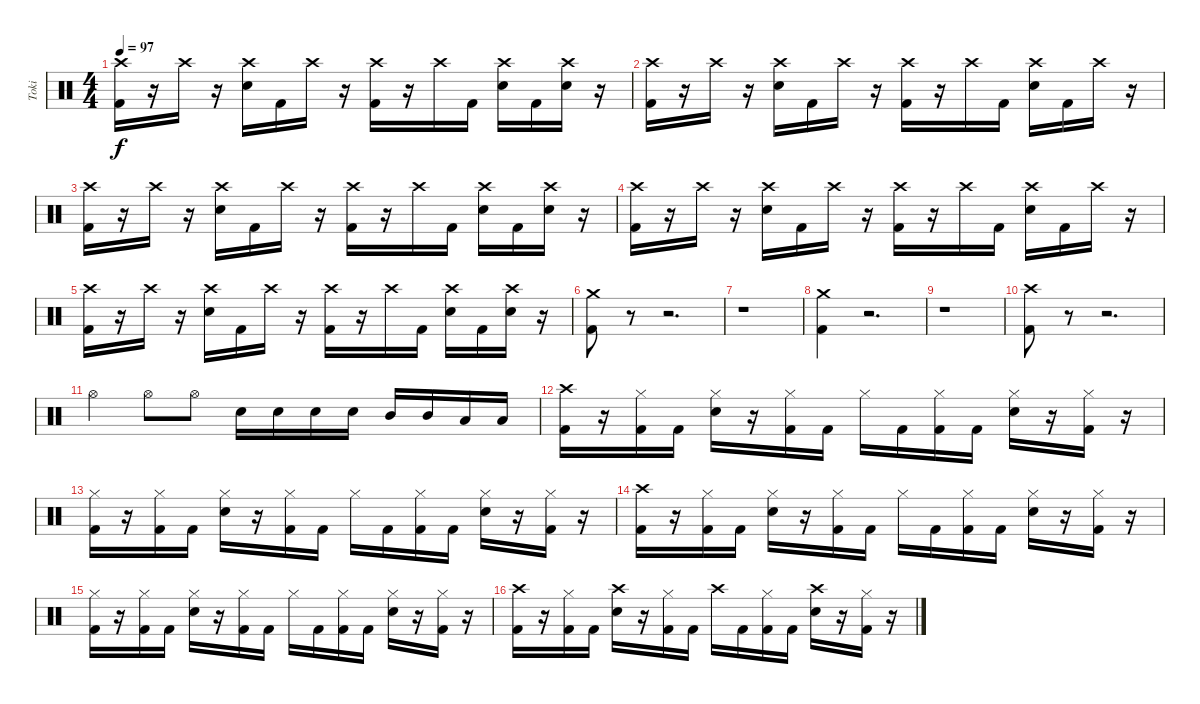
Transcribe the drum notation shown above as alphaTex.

\track ("Toki" "Toki") {instrument percussion}
\staff {score}
\articulation defaults
\ts (4 4)
\tempo 97
\clef neutral
\ks c
("Crash high (hit)" "Kick (hit) 2").16{dy f} r.16 "Crash high (hit)".16 r.16 ("Crash high (hit)" "Electric Snare (hit)").16 "Kick (hit) 2".16 "Crash high (hit)".16 r.16 ("Crash high (hit)" "Kick (hit) 2").16 r.16 "Crash high (hit)".16 "Kick (hit) 2".16 ("Crash high (hit)" "Electric Snare (hit)").16 "Kick (hit) 2".16 ("Crash high (hit)" "Electric Snare (hit)").16 r.16 |
("Crash high (hit)" "Kick (hit) 2").16 r.16 "Crash high (hit)".16 r.16 ("Crash high (hit)" "Electric Snare (hit)").16 "Kick (hit) 2".16 "Crash high (hit)".16 r.16 ("Crash high (hit)" "Kick (hit) 2").16 r.16 "Crash high (hit)".16 "Kick (hit) 2".16 ("Crash high (hit)" "Electric Snare (hit)").16 "Kick (hit) 2".16 "Crash high (hit)".16 r.16 |
("Crash high (hit)" "Kick (hit) 2").16 r.16 "Crash high (hit)".16 r.16 ("Crash high (hit)" "Electric Snare (hit)").16 "Kick (hit) 2".16 "Crash high (hit)".16 r.16 ("Crash high (hit)" "Kick (hit) 2").16 r.16 "Crash high (hit)".16 "Kick (hit) 2".16 ("Crash high (hit)" "Electric Snare (hit)").16 "Kick (hit) 2".16 ("Crash high (hit)" "Electric Snare (hit)").16 r.16 |
("Crash high (hit)" "Kick (hit) 2").16 r.16 "Crash high (hit)".16 r.16 ("Crash high (hit)" "Electric Snare (hit)").16 "Kick (hit) 2".16 "Crash high (hit)".16 r.16 ("Crash high (hit)" "Kick (hit) 2").16 r.16 "Crash high (hit)".16 "Kick (hit) 2".16 ("Crash high (hit)" "Electric Snare (hit)").16 "Kick (hit) 2".16 "Crash high (hit)".16 r.16 |
("Crash high (hit)" "Kick (hit) 2").16 r.16 "Crash high (hit)".16 r.16 ("Crash high (hit)" "Electric Snare (hit)").16 "Kick (hit) 2".16 "Crash high (hit)".16 r.16 ("Crash high (hit)" "Kick (hit) 2").16 r.16 "Crash high (hit)".16 "Kick (hit) 2".16 ("Crash high (hit)" "Electric Snare (hit)").16 "Kick (hit) 2".16 ("Crash high (hit)" "Electric Snare (hit)").16 r.16 |
\section ("" "")
("Crash medium (hit)" "Kick (hit) 2").8 r.8 r.2{d} |
r.1 |
\section ("" "")
("Crash medium (hit)" "Kick (hit) 2").4 r.2{d} |
r.1 |
("Crash high (hit)" "Kick (hit) 2").8 r.8 r.2{d} |
"Hi-Hat (open)".4 "Hi-Hat (open)".8 "Hi-Hat (open)".8 "Electric Snare (hit)".16 "Electric Snare (hit)".16 "Electric Snare (hit)".16 "Electric Snare (hit)".16 "Mid Tom (hit)".16 "Mid Tom (hit)".16 "Low Tom (hit)".16 "Low Tom (hit)".16 |
("Crash high (hit)" "Kick (hit) 2").16 r.16 ("Hi-Hat (closed)" "Kick (hit) 2").16 "Kick (hit) 2".16 ("Hi-Hat (closed)" "Electric Snare (hit)").16 r.16 ("Hi-Hat (closed)" "Kick (hit) 2").16 "Kick (hit) 2".16 "Hi-Hat (closed)".16 "Kick (hit) 2".16 ("Hi-Hat (closed)" "Kick (hit) 2").16 "Kick (hit) 2".16 ("Hi-Hat (closed)" "Electric Snare (hit)").16 r.16 ("Hi-Hat (closed)" "Kick (hit) 2").16 r.16 |
("Hi-Hat (closed)" "Kick (hit) 2").16 r.16 ("Hi-Hat (closed)" "Kick (hit) 2").16 "Kick (hit) 2".16 ("Hi-Hat (closed)" "Electric Snare (hit)").16 r.16 ("Hi-Hat (closed)" "Kick (hit) 2").16 "Kick (hit) 2".16 "Hi-Hat (closed)".16 "Kick (hit) 2".16 ("Hi-Hat (closed)" "Kick (hit) 2").16 "Kick (hit) 2".16 ("Hi-Hat (closed)" "Electric Snare (hit)").16 r.16 ("Hi-Hat (closed)" "Kick (hit) 2").16 r.16 |
("Crash high (hit)" "Kick (hit) 2").16 r.16 ("Hi-Hat (closed)" "Kick (hit) 2").16 "Kick (hit) 2".16 ("Hi-Hat (closed)" "Electric Snare (hit)").16 r.16 ("Hi-Hat (closed)" "Kick (hit) 2").16 "Kick (hit) 2".16 "Hi-Hat (closed)".16 "Kick (hit) 2".16 ("Hi-Hat (closed)" "Kick (hit) 2").16 "Kick (hit) 2".16 ("Hi-Hat (closed)" "Electric Snare (hit)").16 r.16 ("Hi-Hat (closed)" "Kick (hit) 2").16 r.16 |
("Hi-Hat (closed)" "Kick (hit) 2").16 r.16 ("Hi-Hat (closed)" "Kick (hit) 2").16 "Kick (hit) 2".16 ("Hi-Hat (closed)" "Electric Snare (hit)").16 r.16 ("Hi-Hat (closed)" "Kick (hit) 2").16 "Kick (hit) 2".16 "Hi-Hat (closed)".16 "Kick (hit) 2".16 ("Hi-Hat (closed)" "Kick (hit) 2").16 "Kick (hit) 2".16 ("Hi-Hat (closed)" "Electric Snare (hit)").16 r.16 ("Hi-Hat (closed)" "Kick (hit) 2").16 r.16 |
("Crash high (hit)" "Kick (hit) 2").16 r.16 ("Hi-Hat (closed)" "Kick (hit) 2").16 "Kick (hit) 2".16 ("Crash high (hit)" "Electric Snare (hit)").16 r.16 ("Hi-Hat (closed)" "Kick (hit) 2").16 "Kick (hit) 2".16 "Crash high (hit)".16 "Kick (hit) 2".16 ("Hi-Hat (closed)" "Kick (hit) 2").16 "Kick (hit) 2".16 ("Crash high (hit)" "Electric Snare (hit)").16 r.16 ("Hi-Hat (closed)" "Kick (hit) 2").16 r.16
